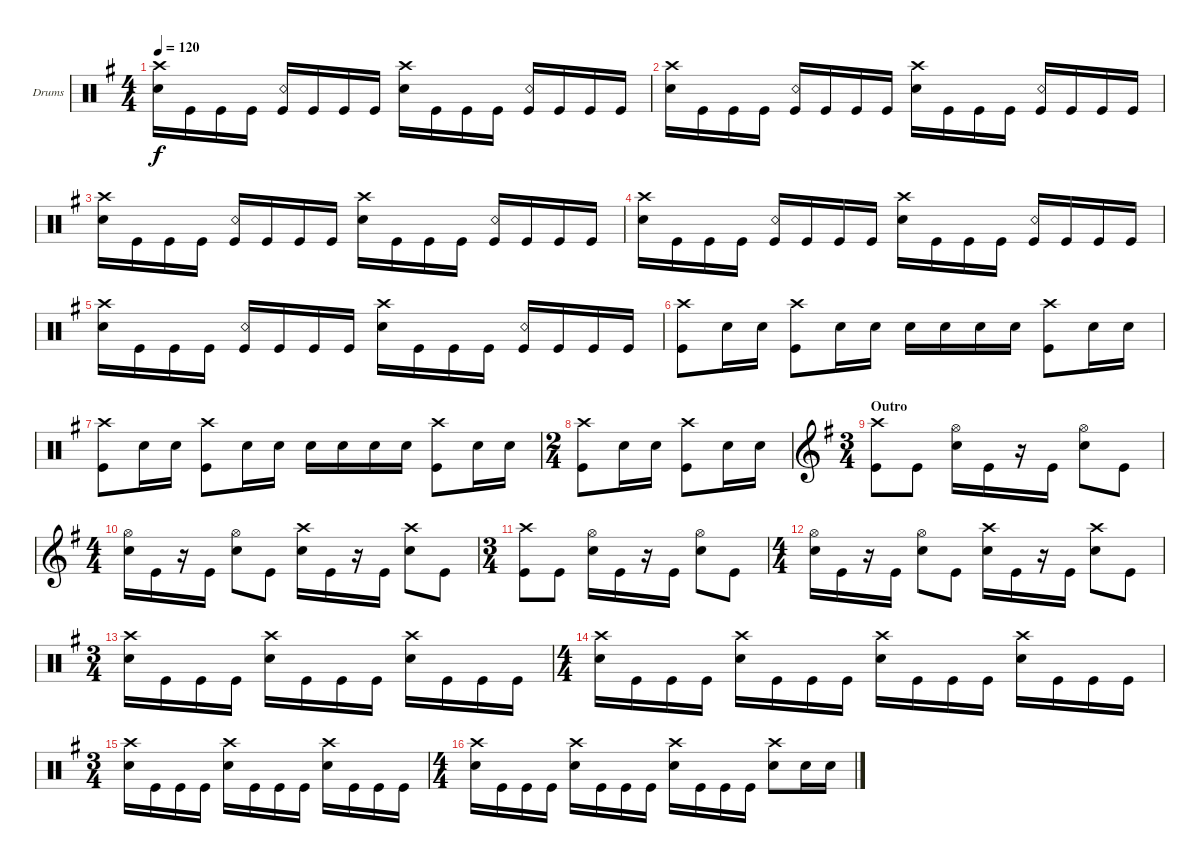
\defaultSystemsLayout 4
\bracketExtendMode groupsimilarinstruments
\firstSystemTrackNameOrientation horizontal
\otherSystemsTrackNameOrientation horizontal
\track ("Drums" "Drums") {instrument percussion}
\staff {score}
\articulation defaults
\ts (4 4)
\tempo 120
\clef neutral
\ks g
("Snare (hit) 2" "Crash high (hit)").16{dy f} "Kick (hit)".16 "Kick (hit)".16 "Kick (hit)".16 ("Kick (hit)" "Snare (rim shot)").16 "Kick (hit)".16 "Kick (hit)".16 "Kick (hit)".16 ("Snare (hit) 2" "Crash high (hit)").16 "Kick (hit)".16 "Kick (hit)".16 "Kick (hit)".16 ("Kick (hit)" "Snare (rim shot)").16 "Kick (hit)".16 "Kick (hit)".16 "Kick (hit)".16 |
("Snare (hit) 2" "Crash high (hit)").16 "Kick (hit)".16 "Kick (hit)".16 "Kick (hit)".16 ("Kick (hit)" "Snare (rim shot)").16 "Kick (hit)".16 "Kick (hit)".16 "Kick (hit)".16 ("Snare (hit) 2" "Crash high (hit)").16 "Kick (hit)".16 "Kick (hit)".16 "Kick (hit)".16 ("Kick (hit)" "Snare (rim shot)").16 "Kick (hit)".16 "Kick (hit)".16 "Kick (hit)".16 |
("Snare (hit) 2" "Crash high (hit)").16 "Kick (hit)".16 "Kick (hit)".16 "Kick (hit)".16 ("Kick (hit)" "Snare (rim shot)").16 "Kick (hit)".16 "Kick (hit)".16 "Kick (hit)".16 ("Snare (hit) 2" "Crash high (hit)").16 "Kick (hit)".16 "Kick (hit)".16 "Kick (hit)".16 ("Kick (hit)" "Snare (rim shot)").16 "Kick (hit)".16 "Kick (hit)".16 "Kick (hit)".16 |
("Snare (hit) 2" "Crash high (hit)").16 "Kick (hit)".16 "Kick (hit)".16 "Kick (hit)".16 ("Kick (hit)" "Snare (rim shot)").16 "Kick (hit)".16 "Kick (hit)".16 "Kick (hit)".16 ("Snare (hit) 2" "Crash high (hit)").16 "Kick (hit)".16 "Kick (hit)".16 "Kick (hit)".16 ("Kick (hit)" "Snare (rim shot)").16 "Kick (hit)".16 "Kick (hit)".16 "Kick (hit)".16 |
("Snare (hit) 2" "Crash high (hit)").16 "Kick (hit)".16 "Kick (hit)".16 "Kick (hit)".16 ("Kick (hit)" "Snare (rim shot)").16 "Kick (hit)".16 "Kick (hit)".16 "Kick (hit)".16 ("Snare (hit) 2" "Crash high (hit)").16 "Kick (hit)".16 "Kick (hit)".16 "Kick (hit)".16 ("Kick (hit)" "Snare (rim shot)").16 "Kick (hit)".16 "Kick (hit)".16 "Kick (hit)".16 |
("Kick (hit)" "Crash high (hit)").8 "Snare (hit) 2".16 "Snare (hit) 2".16 ("Kick (hit)" "Crash high (hit)").8 "Snare (hit) 2".16 "Snare (hit) 2".16 "Snare (hit) 2".16 "Snare (hit) 2".16 "Snare (hit) 2".16 "Snare (hit) 2".16 ("Kick (hit)" "Crash high (hit)").8 "Snare (hit) 2".16 "Snare (hit) 2".16 |
("Kick (hit)" "Crash high (hit)").8 "Snare (hit) 2".16 "Snare (hit) 2".16 ("Kick (hit)" "Crash high (hit)").8 "Snare (hit) 2".16 "Snare (hit) 2".16 "Snare (hit) 2".16 "Snare (hit) 2".16 "Snare (hit) 2".16 "Snare (hit) 2".16 ("Kick (hit)" "Crash high (hit)").8 "Snare (hit) 2".16 "Snare (hit) 2".16 |
\ts (2 4)
("Kick (hit)" "Crash high (hit)").8 "Snare (hit) 2".16 "Snare (hit) 2".16 ("Kick (hit)" "Crash high (hit)").8 "Snare (hit) 2".16 "Snare (hit) 2".16 |
\ts (3 4)
\section ("" "Outro")
\clef g2
("Kick (hit)" "Crash high (hit)").8 "Kick (hit)".8 ("Snare (hit) 2" "Hi-Hat (open)").16 "Kick (hit)".16 r.16 "Kick (hit)".16 ("Snare (hit) 2" "Hi-Hat (open)").8 "Kick (hit)".8 |
\ts (4 4)
("Snare (hit) 2" "Hi-Hat (open)").16 "Kick (hit)".16 r.16 "Kick (hit)".16 ("Snare (hit) 2" "Hi-Hat (open)").8 "Kick (hit)".8 ("Snare (hit) 2" "Crash high (hit)").16 "Kick (hit)".16 r.16 "Kick (hit)".16 ("Snare (hit) 2" "Crash high (hit)").8 "Kick (hit)".8 |
\ts (3 4)
("Kick (hit)" "Crash high (hit)").8 "Kick (hit)".8 ("Snare (hit) 2" "Hi-Hat (open)").16 "Kick (hit)".16 r.16 "Kick (hit)".16 ("Snare (hit) 2" "Hi-Hat (open)").8 "Kick (hit)".8 |
\ts (4 4)
("Snare (hit) 2" "Hi-Hat (open)").16 "Kick (hit)".16 r.16 "Kick (hit)".16 ("Snare (hit) 2" "Hi-Hat (open)").8 "Kick (hit)".8 ("Snare (hit) 2" "Crash high (hit)").16 "Kick (hit)".16 r.16 "Kick (hit)".16 ("Snare (hit) 2" "Crash high (hit)").8 "Kick (hit)".8 |
\ts (3 4)
\clef neutral
("Snare (hit) 2" "Crash high (hit)").16 "Kick (hit)".16 "Kick (hit)".16 "Kick (hit)".16 ("Snare (hit) 2" "Crash high (hit)").16 "Kick (hit)".16 "Kick (hit)".16 "Kick (hit)".16 ("Snare (hit) 2" "Crash high (hit)").16 "Kick (hit)".16 "Kick (hit)".16 "Kick (hit)".16 |
\ts (4 4)
("Snare (hit) 2" "Crash high (hit)").16 "Kick (hit)".16 "Kick (hit)".16 "Kick (hit)".16 ("Snare (hit) 2" "Crash high (hit)").16 "Kick (hit)".16 "Kick (hit)".16 "Kick (hit)".16 ("Snare (hit) 2" "Crash high (hit)").16 "Kick (hit)".16 "Kick (hit)".16 "Kick (hit)".16 ("Snare (hit) 2" "Crash high (hit)").16 "Kick (hit)".16 "Kick (hit)".16 "Kick (hit)".16 |
\ts (3 4)
("Snare (hit) 2" "Crash high (hit)").16 "Kick (hit)".16 "Kick (hit)".16 "Kick (hit)".16 ("Snare (hit) 2" "Crash high (hit)").16 "Kick (hit)".16 "Kick (hit)".16 "Kick (hit)".16 ("Snare (hit) 2" "Crash high (hit)").16 "Kick (hit)".16 "Kick (hit)".16 "Kick (hit)".16 |
\ts (4 4)
("Snare (hit) 2" "Crash high (hit)").16 "Kick (hit)".16 "Kick (hit)".16 "Kick (hit)".16 ("Snare (hit) 2" "Crash high (hit)").16 "Kick (hit)".16 "Kick (hit)".16 "Kick (hit)".16 ("Snare (hit) 2" "Crash high (hit)").16 "Kick (hit)".16 "Kick (hit)".16 "Kick (hit)".16 ("Snare (hit) 2" "Crash high (hit)").8 "Snare (hit) 2".16 "Snare (hit) 2".16
